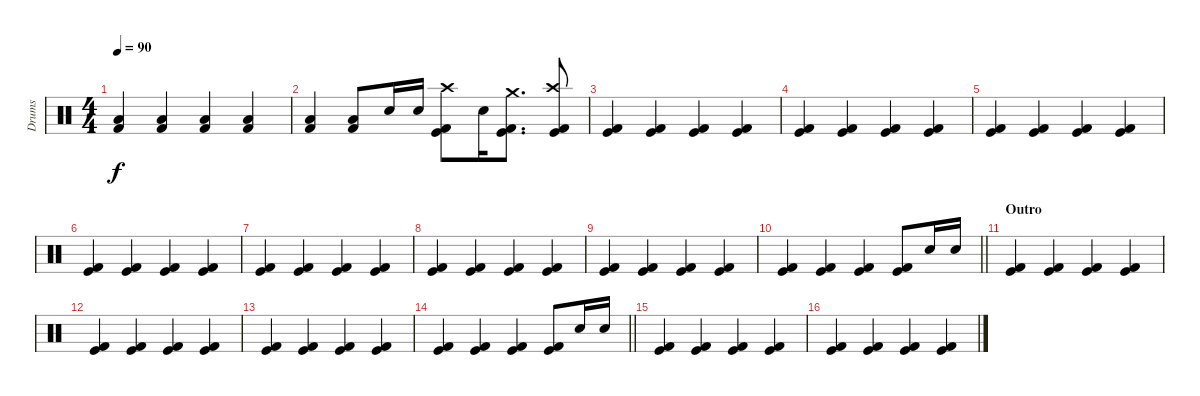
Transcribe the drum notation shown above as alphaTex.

\track ("Drums" "Drums") {instrument percussion}
\staff {score}
\articulation defaults
\ts (4 4)
\tempo 90
\clef neutral
\ks c
("Low Floor Tom (hit)" "Kick (hit) 2").4{dy f} ("Low Floor Tom (hit)" "Kick (hit) 2").4 ("Low Floor Tom (hit)" "Kick (hit) 2").4 ("Low Floor Tom (hit)" "Kick (hit) 2").4 |
("Low Floor Tom (hit)" "Kick (hit) 2").4 ("Low Floor Tom (hit)" "Kick (hit) 2").8 "Snare (hit) 2".16 "Snare (hit) 2".16 ("Crash high (hit)" "Kick (hit)" "Kick (hit) 2").8 "Snare (hit) 2".16 ("Crash medium (hit)" "Kick (hit)" "Kick (hit) 2").8{d} ("Crash high (hit)" "Kick (hit)" "Kick (hit) 2").8 |
("Kick (hit)" "Kick (hit) 2").4 ("Kick (hit)" "Kick (hit) 2").4 ("Kick (hit)" "Kick (hit) 2").4 ("Kick (hit)" "Kick (hit) 2").4 |
("Kick (hit)" "Kick (hit) 2").4 ("Kick (hit)" "Kick (hit) 2").4 ("Kick (hit)" "Kick (hit) 2").4 ("Kick (hit)" "Kick (hit) 2").4 |
("Kick (hit)" "Kick (hit) 2").4 ("Kick (hit)" "Kick (hit) 2").4 ("Kick (hit)" "Kick (hit) 2").4 ("Kick (hit)" "Kick (hit) 2").4 |
("Kick (hit)" "Kick (hit) 2").4 ("Kick (hit)" "Kick (hit) 2").4 ("Kick (hit)" "Kick (hit) 2").4 ("Kick (hit)" "Kick (hit) 2").4 |
("Kick (hit)" "Kick (hit) 2").4 ("Kick (hit)" "Kick (hit) 2").4 ("Kick (hit)" "Kick (hit) 2").4 ("Kick (hit)" "Kick (hit) 2").4 |
("Kick (hit)" "Kick (hit) 2").4 ("Kick (hit)" "Kick (hit) 2").4 ("Kick (hit)" "Kick (hit) 2").4 ("Kick (hit)" "Kick (hit) 2").4 |
("Kick (hit)" "Kick (hit) 2").4 ("Kick (hit)" "Kick (hit) 2").4 ("Kick (hit)" "Kick (hit) 2").4 ("Kick (hit)" "Kick (hit) 2").4 |
\barLineRight lightlight
("Kick (hit)" "Kick (hit) 2").4 ("Kick (hit)" "Kick (hit) 2").4 ("Kick (hit)" "Kick (hit) 2").4 ("Kick (hit)" "Kick (hit) 2").8 "Snare (hit) 2".16 "Snare (hit) 2".16 |
\section ("" "Outro")
("Kick (hit)" "Kick (hit) 2").4 ("Kick (hit)" "Kick (hit) 2").4 ("Kick (hit)" "Kick (hit) 2").4 ("Kick (hit)" "Kick (hit) 2").4 |
("Kick (hit)" "Kick (hit) 2").4 ("Kick (hit)" "Kick (hit) 2").4 ("Kick (hit)" "Kick (hit) 2").4 ("Kick (hit)" "Kick (hit) 2").4 |
("Kick (hit)" "Kick (hit) 2").4 ("Kick (hit)" "Kick (hit) 2").4 ("Kick (hit)" "Kick (hit) 2").4 ("Kick (hit)" "Kick (hit) 2").4 |
\barLineRight lightlight
("Kick (hit)" "Kick (hit) 2").4 ("Kick (hit)" "Kick (hit) 2").4 ("Kick (hit)" "Kick (hit) 2").4 ("Kick (hit)" "Kick (hit) 2").8 "Snare (hit) 2".16 "Snare (hit) 2".16 |
("Kick (hit)" "Kick (hit) 2").4 ("Kick (hit)" "Kick (hit) 2").4 ("Kick (hit)" "Kick (hit) 2").4 ("Kick (hit)" "Kick (hit) 2").4 |
("Kick (hit)" "Kick (hit) 2").4 ("Kick (hit)" "Kick (hit) 2").4 ("Kick (hit)" "Kick (hit) 2").4 ("Kick (hit)" "Kick (hit) 2").4
